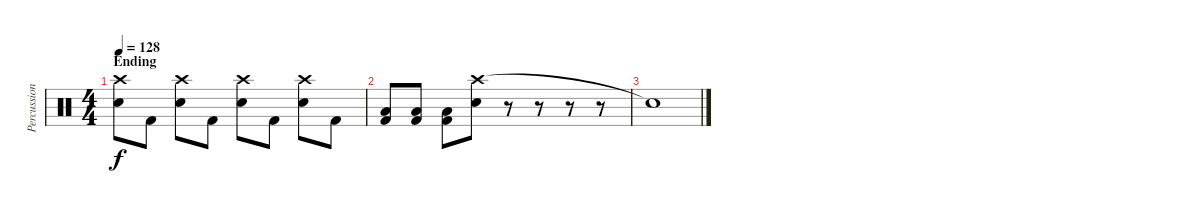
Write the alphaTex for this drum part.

\track ("Percussion" "Percussion") {instrument percussion}
\staff {score}
\articulation defaults
\ts (4 4)
\section ("" "Ending")
\tempo 128
\clef neutral
\ks c
("Crash high (hit)" "Snare (hit) 2").8{dy f} "Kick (hit) 2".8 ("Crash high (hit)" "Snare (hit) 2").8 "Kick (hit) 2".8 ("Crash high (hit)" "Snare (hit) 2").8 "Kick (hit) 2".8 ("Crash high (hit)" "Snare (hit) 2").8 "Kick (hit) 2".8 |
("Low Floor Tom (hit)" "Kick (hit) 2").8 ("Low Floor Tom (hit)" "Kick (hit) 2").8 ("Low Floor Tom (hit)" "Kick (hit) 2").8 ("Crash high (hit)" "Snare (hit) 2").8 r.8 r.8 r.8 r.8 |
"Snare (hit)"{t}.1
